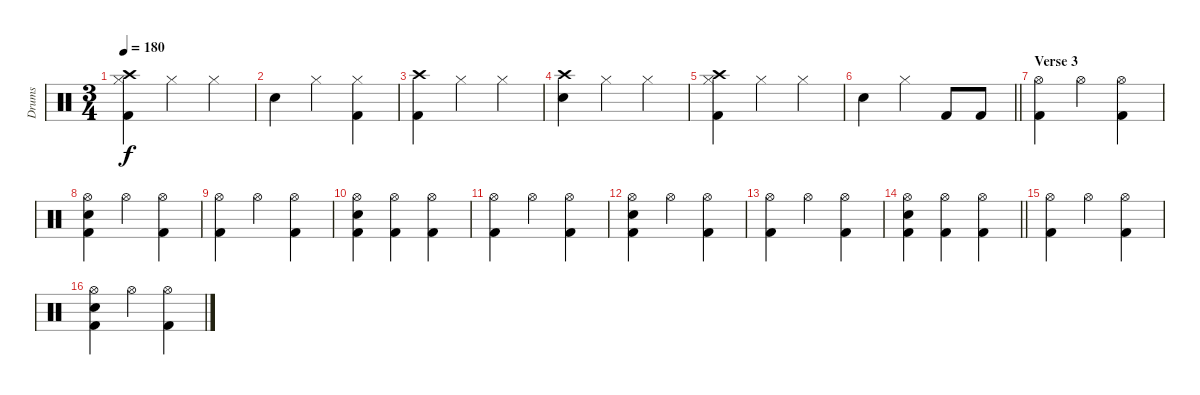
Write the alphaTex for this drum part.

\track ("Drums" "Drums") {instrument percussion}
\staff {score}
\articulation defaults
\ts (3 4)
\tempo 180
\clef neutral
\ks c
("Hi-Hat (closed)" "Kick (hit) 2" "Crash high (hit)").4{dy f} "Hi-Hat (closed)".4 "Hi-Hat (closed)".4 |
"Snare (hit) 2".4 "Hi-Hat (closed)".4 ("Hi-Hat (closed)" "Kick (hit) 2").4 |
("Crash high (hit)" "Kick (hit) 2").4 "Hi-Hat (closed)".4 "Hi-Hat (closed)".4 |
("Snare (hit) 2" "Crash high (hit)").4 "Hi-Hat (closed)".4 "Hi-Hat (closed)".4 |
("Hi-Hat (closed)" "Kick (hit) 2" "Crash high (hit)").4 "Hi-Hat (closed)".4 "Hi-Hat (closed)".4 |
\barLineRight lightlight "Snare (hit) 2".4 "Hi-Hat (closed)".4 "Kick (hit) 2".8 "Kick (hit) 2".8
|
\section ("" "Verse 3")
("Hi-Hat (open)" "Kick (hit) 2").4 "Hi-Hat (open)".4 ("Hi-Hat (open)" "Kick (hit) 2").4 |
("Hi-Hat (open)" "Snare (hit) 2" "Kick (hit) 2").4 "Hi-Hat (open)".4 ("Hi-Hat (open)" "Kick (hit) 2").4 |
("Hi-Hat (open)" "Kick (hit) 2").4 "Hi-Hat (open)".4 ("Kick (hit) 2" "Hi-Hat (open)").4 |
("Hi-Hat (open)" "Snare (hit) 2" "Kick (hit) 2").4 ("Hi-Hat (open)" "Kick (hit) 2").4 ("Hi-Hat (open)" "Kick (hit) 2").4 |
("Hi-Hat (open)" "Kick (hit) 2").4 "Hi-Hat (open)".4 ("Hi-Hat (open)" "Kick (hit) 2").4 |
("Hi-Hat (open)" "Snare (hit) 2" "Kick (hit) 2").4 "Hi-Hat (open)".4 ("Hi-Hat (open)" "Kick (hit) 2").4 |
("Hi-Hat (open)" "Kick (hit) 2").4 "Hi-Hat (open)".4 ("Kick (hit) 2" "Hi-Hat (open)").4 |
\barLineRight lightlight
("Hi-Hat (open)" "Snare (hit) 2" "Kick (hit) 2").4 ("Hi-Hat (open)" "Kick (hit) 2").4 ("Hi-Hat (open)" "Kick (hit) 2").4 |
("Hi-Hat (open)" "Kick (hit) 2").4 "Hi-Hat (open)".4 ("Hi-Hat (open)" "Kick (hit) 2").4 |
("Hi-Hat (open)" "Snare (hit) 2" "Kick (hit) 2").4 "Hi-Hat (open)".4 ("Hi-Hat (open)" "Kick (hit) 2").4
